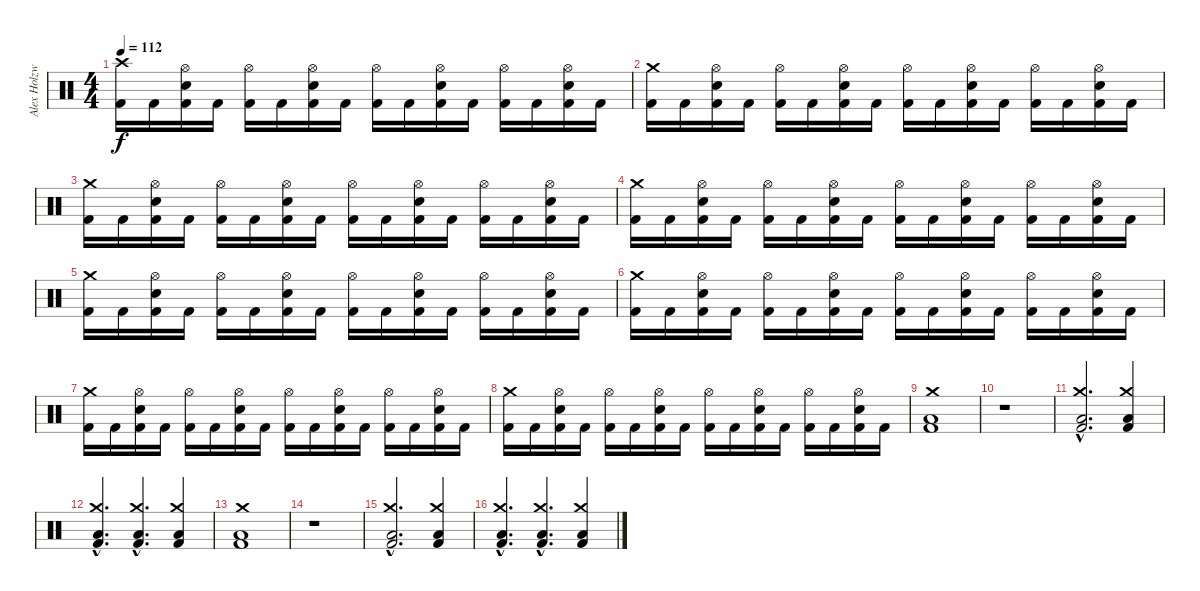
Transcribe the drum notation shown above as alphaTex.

\track ("Alex Holzwarth - Drums" "Alex Holzw") {instrument percussion}
\staff {score}
\articulation defaults
\ts (4 4)
\tempo 112
\clef neutral
\ks c
("Crash high (hit)" "Kick (hit) 2").16{dy f} "Kick (hit) 2".16 ("Hi-Hat (open)" "Electric Snare (hit)" "Kick (hit) 2").16 "Kick (hit) 2".16 ("Hi-Hat (open)" "Kick (hit) 2").16 "Kick (hit) 2".16 ("Hi-Hat (open)" "Electric Snare (hit)" "Kick (hit) 2").16 "Kick (hit) 2".16 ("Hi-Hat (open)" "Kick (hit) 2").16 "Kick (hit) 2".16 ("Hi-Hat (open)" "Electric Snare (hit)" "Kick (hit) 2").16 "Kick (hit) 2".16 ("Hi-Hat (open)" "Kick (hit) 2").16 "Kick (hit) 2".16 ("Hi-Hat (open)" "Electric Snare (hit)" "Kick (hit) 2").16 "Kick (hit) 2".16 |
("Crash medium (hit)" "Kick (hit) 2").16 "Kick (hit) 2".16 ("Hi-Hat (open)" "Electric Snare (hit)" "Kick (hit) 2").16 "Kick (hit) 2".16 ("Hi-Hat (open)" "Kick (hit) 2").16 "Kick (hit) 2".16 ("Hi-Hat (open)" "Electric Snare (hit)" "Kick (hit) 2").16 "Kick (hit) 2".16 ("Hi-Hat (open)" "Kick (hit) 2").16 "Kick (hit) 2".16 ("Hi-Hat (open)" "Electric Snare (hit)" "Kick (hit) 2").16 "Kick (hit) 2".16 ("Hi-Hat (open)" "Kick (hit) 2").16 "Kick (hit) 2".16 ("Hi-Hat (open)" "Electric Snare (hit)" "Kick (hit) 2").16 "Kick (hit) 2".16 |
("Crash medium (hit)" "Kick (hit) 2").16 "Kick (hit) 2".16 ("Hi-Hat (open)" "Electric Snare (hit)" "Kick (hit) 2").16 "Kick (hit) 2".16 ("Hi-Hat (open)" "Kick (hit) 2").16 "Kick (hit) 2".16 ("Hi-Hat (open)" "Electric Snare (hit)" "Kick (hit) 2").16 "Kick (hit) 2".16 ("Hi-Hat (open)" "Kick (hit) 2").16 "Kick (hit) 2".16 ("Hi-Hat (open)" "Electric Snare (hit)" "Kick (hit) 2").16 "Kick (hit) 2".16 ("Hi-Hat (open)" "Kick (hit) 2").16 "Kick (hit) 2".16 ("Hi-Hat (open)" "Electric Snare (hit)" "Kick (hit) 2").16 "Kick (hit) 2".16 |
("Crash medium (hit)" "Kick (hit) 2").16 "Kick (hit) 2".16 ("Hi-Hat (open)" "Electric Snare (hit)" "Kick (hit) 2").16 "Kick (hit) 2".16 ("Hi-Hat (open)" "Kick (hit) 2").16 "Kick (hit) 2".16 ("Hi-Hat (open)" "Electric Snare (hit)" "Kick (hit) 2").16 "Kick (hit) 2".16 ("Hi-Hat (open)" "Kick (hit) 2").16 "Kick (hit) 2".16 ("Hi-Hat (open)" "Electric Snare (hit)" "Kick (hit) 2").16 "Kick (hit) 2".16 ("Hi-Hat (open)" "Kick (hit) 2").16 "Kick (hit) 2".16 ("Hi-Hat (open)" "Electric Snare (hit)" "Kick (hit) 2").16 "Kick (hit) 2".16 |
("Crash medium (hit)" "Kick (hit) 2").16 "Kick (hit) 2".16 ("Hi-Hat (open)" "Electric Snare (hit)" "Kick (hit) 2").16 "Kick (hit) 2".16 ("Hi-Hat (open)" "Kick (hit) 2").16 "Kick (hit) 2".16 ("Hi-Hat (open)" "Electric Snare (hit)" "Kick (hit) 2").16 "Kick (hit) 2".16 ("Hi-Hat (open)" "Kick (hit) 2").16 "Kick (hit) 2".16 ("Hi-Hat (open)" "Electric Snare (hit)" "Kick (hit) 2").16 "Kick (hit) 2".16 ("Hi-Hat (open)" "Kick (hit) 2").16 "Kick (hit) 2".16 ("Hi-Hat (open)" "Electric Snare (hit)" "Kick (hit) 2").16 "Kick (hit) 2".16 |
("Crash medium (hit)" "Kick (hit) 2").16 "Kick (hit) 2".16 ("Hi-Hat (open)" "Electric Snare (hit)" "Kick (hit) 2").16 "Kick (hit) 2".16 ("Hi-Hat (open)" "Kick (hit) 2").16 "Kick (hit) 2".16 ("Hi-Hat (open)" "Electric Snare (hit)" "Kick (hit) 2").16 "Kick (hit) 2".16 ("Hi-Hat (open)" "Kick (hit) 2").16 "Kick (hit) 2".16 ("Hi-Hat (open)" "Electric Snare (hit)" "Kick (hit) 2").16 "Kick (hit) 2".16 ("Hi-Hat (open)" "Kick (hit) 2").16 "Kick (hit) 2".16 ("Hi-Hat (open)" "Electric Snare (hit)" "Kick (hit) 2").16 "Kick (hit) 2".16 |
("Crash medium (hit)" "Kick (hit) 2").16 "Kick (hit) 2".16 ("Hi-Hat (open)" "Electric Snare (hit)" "Kick (hit) 2").16 "Kick (hit) 2".16 ("Hi-Hat (open)" "Kick (hit) 2").16 "Kick (hit) 2".16 ("Hi-Hat (open)" "Electric Snare (hit)" "Kick (hit) 2").16 "Kick (hit) 2".16 ("Hi-Hat (open)" "Kick (hit) 2").16 "Kick (hit) 2".16 ("Hi-Hat (open)" "Electric Snare (hit)" "Kick (hit) 2").16 "Kick (hit) 2".16 ("Hi-Hat (open)" "Kick (hit) 2").16 "Kick (hit) 2".16 ("Hi-Hat (open)" "Electric Snare (hit)" "Kick (hit) 2").16 "Kick (hit) 2".16 |
("Crash medium (hit)" "Kick (hit) 2").16 "Kick (hit) 2".16 ("Hi-Hat (open)" "Electric Snare (hit)" "Kick (hit) 2").16 "Kick (hit) 2".16 ("Hi-Hat (open)" "Kick (hit) 2").16 "Kick (hit) 2".16 ("Hi-Hat (open)" "Electric Snare (hit)" "Kick (hit) 2").16 "Kick (hit) 2".16 ("Hi-Hat (open)" "Kick (hit) 2").16 "Kick (hit) 2".16 ("Hi-Hat (open)" "Electric Snare (hit)" "Kick (hit) 2").16 "Kick (hit) 2".16 ("Hi-Hat (open)" "Kick (hit) 2").16 "Kick (hit) 2".16 ("Hi-Hat (open)" "Electric Snare (hit)" "Kick (hit) 2").16 "Kick (hit) 2".16 |
("Crash medium (hit)" "Low Floor Tom (hit)" "Kick (hit) 2").1 |
r.1 |
("Crash medium (hit)"{hac} "Low Floor Tom (hit)"{hac} "Kick (hit) 2"{hac}).2{d} ("Crash medium (hit)" "Low Floor Tom (hit)" "Kick (hit) 2").4 |
("Crash medium (hit)"{hac} "Low Floor Tom (hit)"{hac} "Kick (hit) 2"{hac}).4{d} ("Crash medium (hit)"{hac} "Low Floor Tom (hit)"{hac} "Kick (hit) 2"{hac}).4{d} ("Crash medium (hit)" "Low Floor Tom (hit)" "Kick (hit) 2").4 |
("Crash medium (hit)" "Low Floor Tom (hit)" "Kick (hit) 2").1 |
r.1 |
("Crash medium (hit)"{hac} "Low Floor Tom (hit)"{hac} "Kick (hit) 2"{hac}).2{d} ("Crash medium (hit)" "Low Floor Tom (hit)" "Kick (hit) 2").4 |
("Crash medium (hit)"{hac} "Low Floor Tom (hit)"{hac} "Kick (hit) 2"{hac}).4{d} ("Crash medium (hit)"{hac} "Low Floor Tom (hit)"{hac} "Kick (hit) 2"{hac}).4{d} ("Crash medium (hit)" "Low Floor Tom (hit)" "Kick (hit) 2").4
